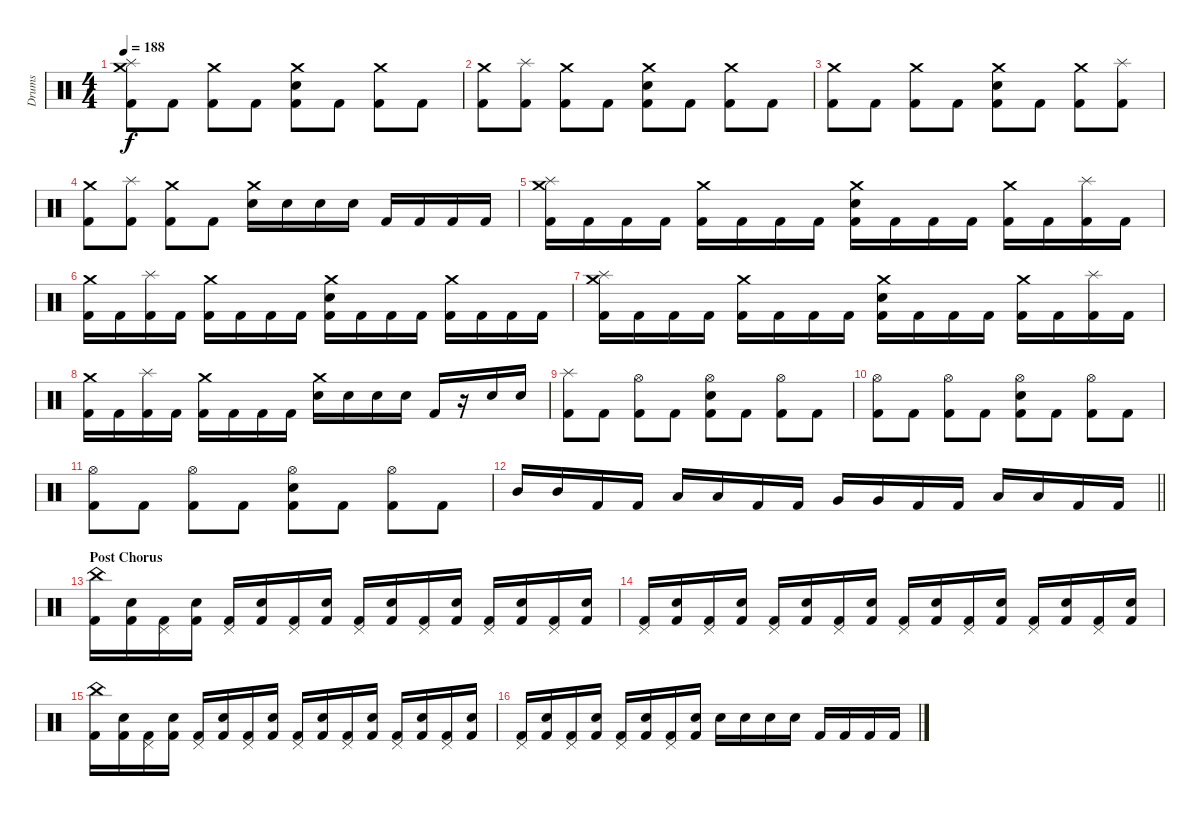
\track ("Drums" "Drums") {instrument percussion}
\staff {score}
\articulation defaults
\ts (4 4)
\tempo 188
\clef neutral
\ks c
("Crash medium (hit)" "Splash (hit)" "Kick (hit) 2").8{dy f} "Kick (hit) 2".8 ("Crash medium (hit)" "Kick (hit) 2").8 "Kick (hit) 2".8 ("Crash medium (hit)" "Snare (hit) 2" "Kick (hit) 2").8 "Kick (hit) 2".8 ("Crash medium (hit)" "Kick (hit) 2").8 "Kick (hit) 2".8 |
("Crash medium (hit)" "Kick (hit) 2").8 ("Splash (hit)" "Kick (hit) 2").8 ("Crash medium (hit)" "Kick (hit) 2").8 "Kick (hit) 2".8 ("Crash medium (hit)" "Snare (hit) 2" "Kick (hit) 2").8 "Kick (hit) 2".8 ("Crash medium (hit)" "Kick (hit) 2").8 "Kick (hit) 2".8 |
("Crash medium (hit)" "Kick (hit) 2").8 "Kick (hit) 2".8 ("Crash medium (hit)" "Kick (hit) 2").8 "Kick (hit) 2".8 ("Crash medium (hit)" "Snare (hit) 2" "Kick (hit) 2").8 "Kick (hit) 2".8 ("Crash medium (hit)" "Kick (hit) 2").8 ("Splash (hit)" "Kick (hit) 2").8 |
("Crash medium (hit)" "Kick (hit) 2").8 ("Splash (hit)" "Kick (hit) 2").8 ("Crash medium (hit)" "Kick (hit) 2").8 "Kick (hit) 2".8 ("Crash medium (hit)" "Snare (hit) 2").16 "Snare (hit) 2".16 "Snare (hit) 2".16 "Snare (hit) 2".16 "Kick (hit) 2".16 "Kick (hit) 2".16 "Kick (hit) 2".16 "Kick (hit) 2".16 |
("Crash medium (hit)" "Splash (hit)" "Kick (hit) 2").16 "Kick (hit) 2".16 "Kick (hit) 2".16 "Kick (hit) 2".16 ("Crash medium (hit)" "Kick (hit) 2").16 "Kick (hit) 2".16 "Kick (hit) 2".16 "Kick (hit) 2".16 ("Crash medium (hit)" "Snare (hit) 2" "Kick (hit) 2").16 "Kick (hit) 2".16 "Kick (hit) 2".16 "Kick (hit) 2".16 ("Crash medium (hit)" "Kick (hit) 2").16 "Kick (hit) 2".16 ("Splash (hit)" "Kick (hit) 2").16 "Kick (hit) 2".16 |
("Crash medium (hit)" "Kick (hit) 2").16 "Kick (hit) 2".16 ("Splash (hit)" "Kick (hit) 2").16 "Kick (hit) 2".16 ("Crash medium (hit)" "Kick (hit) 2").16 "Kick (hit) 2".16 "Kick (hit) 2".16 "Kick (hit) 2".16 ("Crash medium (hit)" "Snare (hit) 2" "Kick (hit) 2").16 "Kick (hit) 2".16 "Kick (hit) 2".16 "Kick (hit) 2".16 ("Crash medium (hit)" "Kick (hit) 2").16 "Kick (hit) 2".16 "Kick (hit) 2".16 "Kick (hit) 2".16 |
("Crash medium (hit)" "Splash (hit)" "Kick (hit) 2").16 "Kick (hit) 2".16 "Kick (hit) 2".16 "Kick (hit) 2".16 ("Crash medium (hit)" "Kick (hit) 2").16 "Kick (hit) 2".16 "Kick (hit) 2".16 "Kick (hit) 2".16 ("Crash medium (hit)" "Snare (hit) 2" "Kick (hit) 2").16 "Kick (hit) 2".16 "Kick (hit) 2".16 "Kick (hit) 2".16 ("Crash medium (hit)" "Kick (hit) 2").16 "Kick (hit) 2".16 ("Splash (hit)" "Kick (hit) 2").16 "Kick (hit) 2".16 |
("Crash medium (hit)" "Kick (hit) 2").16 "Kick (hit) 2".16 ("Splash (hit)" "Kick (hit) 2").16 "Kick (hit) 2".16 ("Crash medium (hit)" "Kick (hit) 2").16 "Kick (hit) 2".16 "Kick (hit) 2".16 "Kick (hit) 2".16 ("Crash medium (hit)" "Snare (hit) 2").16 "Snare (hit) 2".16 "Snare (hit) 2".16 "Snare (hit) 2".16 "Kick (hit) 2".16 r.16 "Snare (hit) 2".16 "Snare (hit) 2".16 |
("Splash (hit)" "Kick (hit) 2").8 "Kick (hit) 2".8 ("Hi-Hat (open)" "Kick (hit) 2").8 "Kick (hit) 2".8 ("Hi-Hat (open)" "Snare (hit) 2" "Kick (hit) 2").8 "Kick (hit) 2".8 ("Hi-Hat (open)" "Kick (hit) 2").8 "Kick (hit) 2".8 |
("Hi-Hat (open)" "Kick (hit) 2").8 "Kick (hit) 2".8 ("Hi-Hat (open)" "Kick (hit) 2").8 "Kick (hit) 2".8 ("Hi-Hat (open)" "Snare (hit) 2" "Kick (hit) 2").8 "Kick (hit) 2".8 ("Hi-Hat (open)" "Kick (hit) 2").8 "Kick (hit) 2".8 |
("Hi-Hat (open)" "Kick (hit) 2").8 "Kick (hit) 2".8 ("Hi-Hat (open)" "Kick (hit) 2").8 "Kick (hit) 2".8 ("Hi-Hat (open)" "Snare (hit) 2" "Kick (hit) 2").8 "Kick (hit) 2".8 ("Hi-Hat (open)" "Kick (hit) 2").8 "Kick (hit) 2".8 |
\barLineRight lightlight "Mid Tom (hit)".16 "Mid Tom (hit)".16 "Kick (hit) 2".16 "Kick (hit) 2".16 "Low Tom (hit)".16 "Low Tom (hit)".16 "Kick (hit) 2".16 "Kick (hit) 2".16 "Very Low Tom (hit)".16 "Very Low Tom (hit)".16 "Kick (hit) 2".16 "Kick (hit) 2".16 "Low Floor Tom (hit)".16 "Low Floor Tom (hit)".16 "Kick (hit) 2".16 "Kick (hit) 2".16
|
\section ("" "Post Chorus")
("China (hit)" "Kick (hit) 2").16 ("Snare (hit) 2" "Kick (hit) 2").16 ("Pedal Hi-Hat (hit)" "Kick (hit) 2").16 ("Snare (hit) 2" "Kick (hit) 2").16 ("Pedal Hi-Hat (hit)" "Kick (hit) 2").16 ("Snare (hit) 2" "Kick (hit) 2").16 ("Pedal Hi-Hat (hit)" "Kick (hit) 2").16 ("Snare (hit) 2" "Kick (hit) 2").16 ("Pedal Hi-Hat (hit)" "Kick (hit) 2").16 ("Snare (hit) 2" "Kick (hit) 2").16 ("Pedal Hi-Hat (hit)" "Kick (hit) 2").16 ("Snare (hit) 2" "Kick (hit) 2").16 ("Pedal Hi-Hat (hit)" "Kick (hit) 2").16 ("Snare (hit) 2" "Kick (hit) 2").16 ("Pedal Hi-Hat (hit)" "Kick (hit) 2").16 ("Snare (hit) 2" "Kick (hit) 2").16 |
("Pedal Hi-Hat (hit)" "Kick (hit) 2").16 ("Snare (hit) 2" "Kick (hit) 2").16 ("Pedal Hi-Hat (hit)" "Kick (hit) 2").16 ("Snare (hit) 2" "Kick (hit) 2").16 ("Pedal Hi-Hat (hit)" "Kick (hit) 2").16 ("Snare (hit) 2" "Kick (hit) 2").16 ("Pedal Hi-Hat (hit)" "Kick (hit) 2").16 ("Snare (hit) 2" "Kick (hit) 2").16 ("Pedal Hi-Hat (hit)" "Kick (hit) 2").16 ("Snare (hit) 2" "Kick (hit) 2").16 ("Pedal Hi-Hat (hit)" "Kick (hit) 2").16 ("Snare (hit) 2" "Kick (hit) 2").16 ("Pedal Hi-Hat (hit)" "Kick (hit) 2").16 ("Snare (hit) 2" "Kick (hit) 2").16 ("Pedal Hi-Hat (hit)" "Kick (hit) 2").16 ("Snare (hit) 2" "Kick (hit) 2").16 |
("China (hit)" "Kick (hit) 2").16 ("Snare (hit) 2" "Kick (hit) 2").16 ("Pedal Hi-Hat (hit)" "Kick (hit) 2").16 ("Snare (hit) 2" "Kick (hit) 2").16 ("Pedal Hi-Hat (hit)" "Kick (hit) 2").16 ("Snare (hit) 2" "Kick (hit) 2").16 ("Pedal Hi-Hat (hit)" "Kick (hit) 2").16 ("Snare (hit) 2" "Kick (hit) 2").16 ("Pedal Hi-Hat (hit)" "Kick (hit) 2").16 ("Snare (hit) 2" "Kick (hit) 2").16 ("Pedal Hi-Hat (hit)" "Kick (hit) 2").16 ("Snare (hit) 2" "Kick (hit) 2").16 ("Pedal Hi-Hat (hit)" "Kick (hit) 2").16 ("Snare (hit) 2" "Kick (hit) 2").16 ("Pedal Hi-Hat (hit)" "Kick (hit) 2").16 ("Snare (hit) 2" "Kick (hit) 2").16 |
("Pedal Hi-Hat (hit)" "Kick (hit) 2").16 ("Snare (hit) 2" "Kick (hit) 2").16 ("Pedal Hi-Hat (hit)" "Kick (hit) 2").16 ("Snare (hit) 2" "Kick (hit) 2").16 ("Pedal Hi-Hat (hit)" "Kick (hit) 2").16 ("Snare (hit) 2" "Kick (hit) 2").16 ("Pedal Hi-Hat (hit)" "Kick (hit) 2").16 ("Snare (hit) 2" "Kick (hit) 2").16 "Snare (hit) 2".16 "Snare (hit) 2".16 "Snare (hit) 2".16 "Snare (hit) 2".16 "Kick (hit) 2".16 "Kick (hit) 2".16 "Kick (hit) 2".16 "Kick (hit) 2".16
